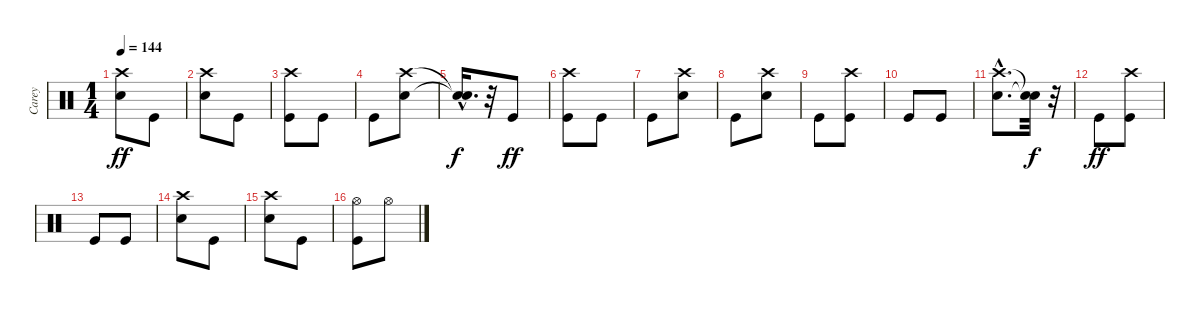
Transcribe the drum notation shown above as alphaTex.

\track ("Carey" "Carey") {instrument percussion}
\staff {score}
\articulation defaults
\ts (1 4)
\tempo 144
\clef neutral
\ks c
("Snare (hit) 2" "Crash high (hit)").8{dy ff} "Kick (hit)".8 |
("Snare (hit) 2" "Crash high (hit)").8 "Kick (hit)".8 |
("Kick (hit)" "Crash high (hit)").8 "Kick (hit)".8 |
"Kick (hit)".8 ("Snare (hit) 2" "Crash high (hit)").8 |
("Snare (hit)"{hac t} "Snare (hit)"{hac t}).16{d dy f} r.32 "Kick (hit)".8{dy ff} |
("Kick (hit)" "Crash high (hit)").8 "Kick (hit)".8 |
"Kick (hit)".8 ("Snare (hit) 2" "Crash high (hit)").8 |
"Kick (hit)".8 ("Snare (hit) 2" "Crash high (hit)").8 |
"Kick (hit)".8 ("Kick (hit)" "Crash high (hit)").8 |
"Kick (hit)".8 "Kick (hit)".8 |
("Snare (hit) 2"{hac} "Crash high (hit)"{hac}).8{d} ("Snare (hit)"{t} "Snare (hit)"{t}).32{dy f} r.32 |
"Kick (hit)".8{dy ff} ("Kick (hit)" "Crash high (hit)").8 |
"Kick (hit)".8 "Kick (hit)".8 |
("Snare (hit) 2" "Crash high (hit)").8 "Kick (hit)".8 |
("Snare (hit) 2" "Crash high (hit)").8 "Kick (hit)".8 |
("Kick (hit)" "Hi-Hat (open)").8 "Hi-Hat (open)".8
